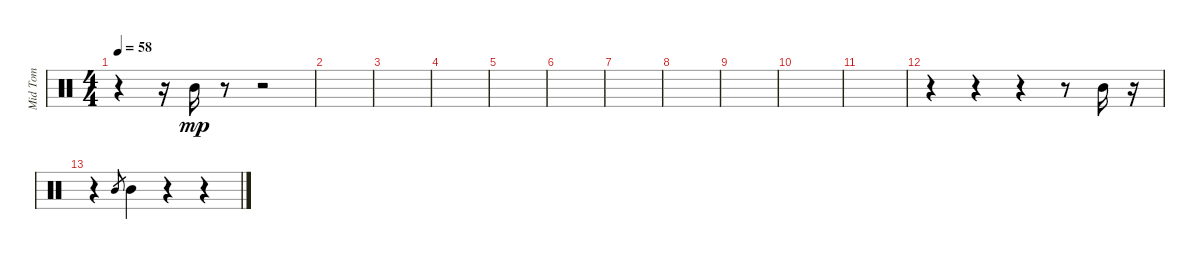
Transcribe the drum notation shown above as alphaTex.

\track ("Mid Tom" "Mid Tom") {instrument percussion}
\staff {score}
\articulation defaults
\ts (4 4)
\tempo 58
\clef neutral
\ks c
r.4{dy pp} r.16 "Mid Tom (hit)".16{dy mp} r.8 r.2 |
|
|
|
|
|
|
|
|
|
|
r.4 r.4 r.4 r.8 "Mid Tom (hit)".16 r.16 |
r.4 "Mid Tom (hit)".8{gr} "Mid Tom (hit)".4 r.4 r.4
